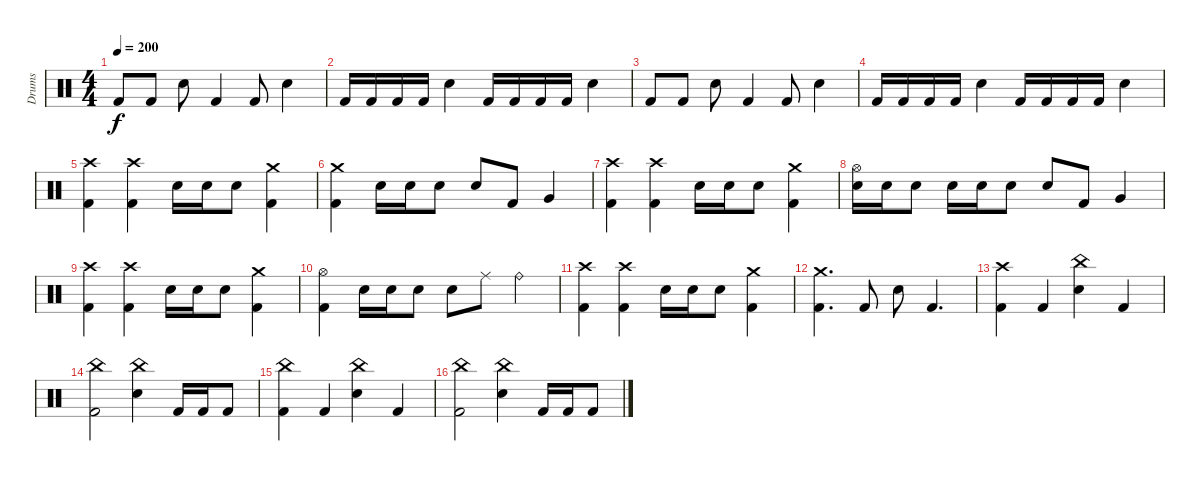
\track ("Drums" "Drums") {instrument percussion}
\staff {score}
\articulation defaults
\ts (4 4)
\tempo 200
\clef neutral
\ks c "Kick (hit) 2".8{dy f} "Kick (hit) 2".8 "Electric Snare (hit)".8 "Kick (hit) 2".4 "Kick (hit) 2".8 "Electric Snare (hit)".4
|
"Kick (hit) 2".16 "Kick (hit) 2".16 "Kick (hit) 2".16 "Kick (hit) 2".16 "Electric Snare (hit)".4 "Kick (hit) 2".16 "Kick (hit) 2".16 "Kick (hit) 2".16 "Kick (hit) 2".16 "Electric Snare (hit)".4 |
"Kick (hit) 2".8 "Kick (hit) 2".8 "Electric Snare (hit)".8 "Kick (hit) 2".4 "Kick (hit) 2".8 "Electric Snare (hit)".4 |
"Kick (hit) 2".16 "Kick (hit) 2".16 "Kick (hit) 2".16 "Kick (hit) 2".16 "Electric Snare (hit)".4 "Kick (hit) 2".16 "Kick (hit) 2".16 "Kick (hit) 2".16 "Kick (hit) 2".16 "Electric Snare (hit)".4 |
("Crash high (hit)" "Kick (hit) 2").4 ("Crash high (hit)" "Kick (hit) 2").4 "Electric Snare (hit)".16 "Electric Snare (hit)".16 "Electric Snare (hit)".8 ("Crash medium (hit)" "Kick (hit) 2").4 |
("Crash medium (hit)" "Kick (hit) 2").4 "Electric Snare (hit)".16 "Electric Snare (hit)".16 "Electric Snare (hit)".8 "Electric Snare (hit)".8 "Kick (hit) 2".8 "Very Low Tom (hit)".4 |
("Crash high (hit)" "Kick (hit) 2").4 ("Crash high (hit)" "Kick (hit) 2").4 "Electric Snare (hit)".16 "Electric Snare (hit)".16 "Electric Snare (hit)".8 ("Crash medium (hit)" "Kick (hit) 2").4 |
("Hi-Hat (open)" "Electric Snare (hit)").16 "Electric Snare (hit)".16 "Electric Snare (hit)".8 "Electric Snare (hit)".16 "Electric Snare (hit)".16 "Electric Snare (hit)".8 "Electric Snare (hit)".8 "Kick (hit) 2".8 "Very Low Tom (hit)".4 |
("Crash high (hit)" "Kick (hit) 2").4 ("Crash high (hit)" "Kick (hit) 2").4 "Electric Snare (hit)".16 "Electric Snare (hit)".16 "Electric Snare (hit)".8 ("Crash medium (hit)" "Kick (hit) 2").4 |
("Hi-Hat (open)" "Kick (hit) 2").4 "Electric Snare (hit)".16 "Electric Snare (hit)".16 "Electric Snare (hit)".8 "Electric Snare (hit)".8 "Ride (middle)".8 "Ride (bell)".4 |
("Crash high (hit)" "Kick (hit) 2").4 ("Crash high (hit)" "Kick (hit) 2").4 "Electric Snare (hit)".16 "Electric Snare (hit)".16 "Electric Snare (hit)".8 ("Crash medium (hit)" "Kick (hit) 2").4 |
("Crash medium (hit)" "Kick (hit) 2").4{d} "Kick (hit) 2".8 "Electric Snare (hit)".8 "Kick (hit) 2".4{d} |
("Crash high (hit)" "Kick (hit) 2").4 "Kick (hit) 2".4 ("China (hit)" "Electric Snare (hit)").4 "Kick (hit) 2".4 |
("China (hit)" "Kick (hit) 2").2 ("China (hit)" "Electric Snare (hit)").4 "Kick (hit) 2".16 "Kick (hit) 2".16 "Kick (hit) 2".8 |
("China (hit)" "Kick (hit) 2").4 "Kick (hit) 2".4 ("China (hit)" "Electric Snare (hit)").4 "Kick (hit) 2".4 |
("China (hit)" "Kick (hit) 2").2 ("China (hit)" "Electric Snare (hit)").4 "Kick (hit) 2".16 "Kick (hit) 2".16 "Kick (hit) 2".8
